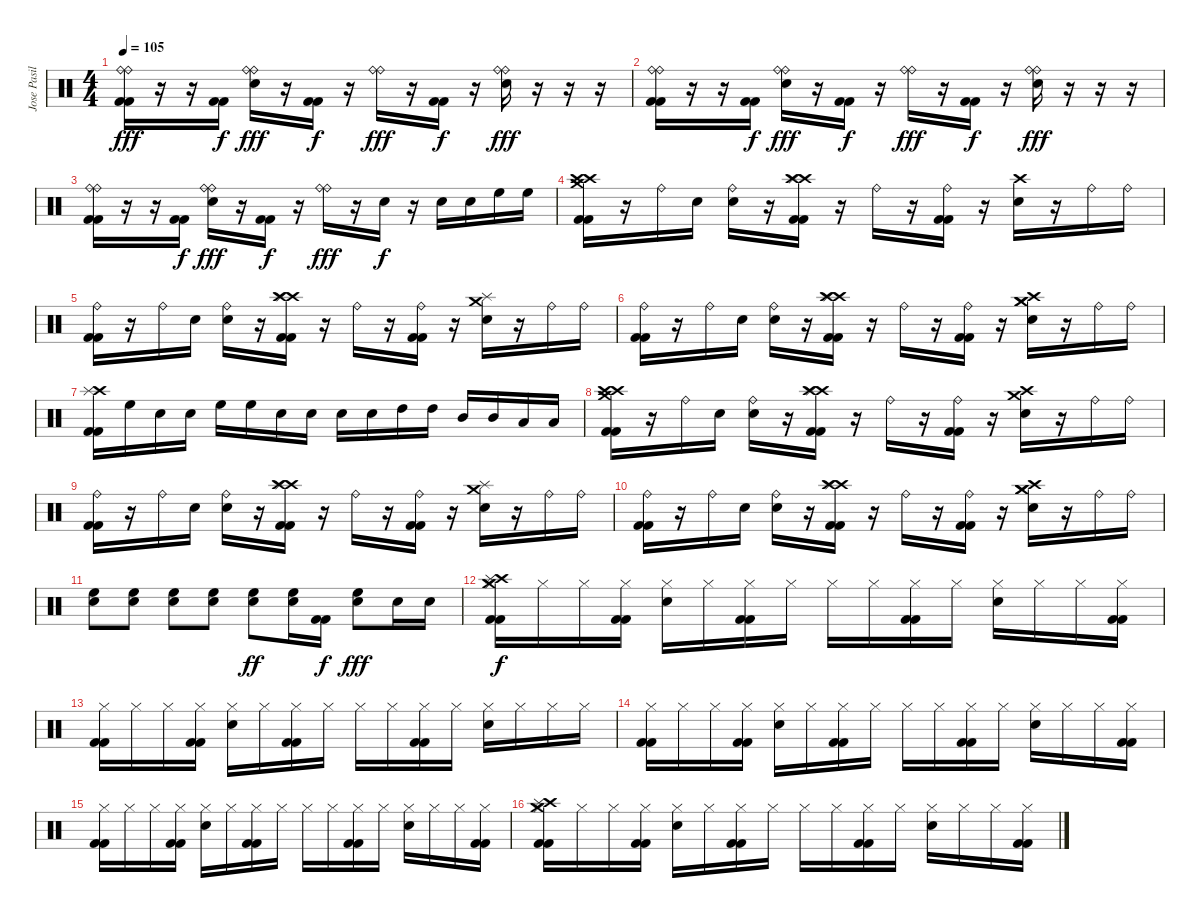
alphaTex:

\track ("Jose Pasillas" "Jose Pasil") {instrument percussion}
\staff {score}
\articulation defaults
\ts (4 4)
\tempo 105
\clef neutral
\ks c
("Ride (bell)" "Ride (bell)" "Kick (hit) 2" "Kick (hit) 2").16{dy fff} r.16 r.16 ("Kick (hit) 2" "Kick (hit) 2").16{dy f} ("Ride (bell)" "Ride (bell)" "Electric Snare (hit)").16{dy fff} r.16 ("Kick (hit) 2" "Kick (hit) 2").16{dy f} r.16 ("Ride (bell)" "Ride (bell)").16{dy fff} r.16 ("Kick (hit) 2" "Kick (hit) 2").16{dy f} r.16 ("Ride (bell)" "Ride (bell)" "Electric Snare (hit)").16{dy fff} r.16 r.16 r.16 |
("Ride (bell)" "Ride (bell)" "Kick (hit) 2" "Kick (hit) 2").16 r.16 r.16 ("Kick (hit) 2" "Kick (hit) 2").16{dy f} ("Ride (bell)" "Ride (bell)" "Electric Snare (hit)").16{dy fff} r.16 ("Kick (hit) 2" "Kick (hit) 2").16{dy f} r.16 ("Ride (bell)" "Ride (bell)").16{dy fff} r.16 ("Kick (hit) 2" "Kick (hit) 2").16{dy f} r.16 ("Ride (bell)" "Ride (bell)" "Electric Snare (hit)").16{dy fff} r.16 r.16 r.16 |
("Ride (bell)" "Ride (bell)" "Kick (hit) 2" "Kick (hit) 2").16 r.16 r.16 ("Kick (hit) 2" "Kick (hit) 2").16{dy f} ("Ride (bell)" "Ride (bell)" "Electric Snare (hit)").16{dy fff} r.16 ("Kick (hit) 2" "Kick (hit) 2").16{dy f} r.16 ("Ride (bell)" "Ride (bell)").16{dy fff} r.16 "Electric Snare (hit)".16{dy f} r.16 "Electric Snare (hit)".16 "Electric Snare (hit)".16 "High Floor Tom (hit)".16 "High Floor Tom (hit)".16 |
("Crash high (hit)" "Crash high (hit)" "Crash medium (hit)" "Kick (hit) 2" "Kick (hit) 2").16 r.16 "Ride (bell)".16 "Electric Snare (hit)".16 ("Ride (bell)" "Electric Snare (hit)").16 r.16 ("Crash high (hit)" "Crash high (hit)" "Splash (hit)" "Kick (hit) 2" "Kick (hit) 2").16 r.16 "Ride (bell)".16 r.16 ("Ride (bell)" "Kick (hit) 2" "Kick (hit) 2").16 r.16 ("Crash high (hit)" "Electric Snare (hit)").16 r.16 "Ride (bell)".16 "Ride (bell)".16 |
("Ride (bell)" "Kick (hit) 2" "Kick (hit) 2").16 r.16 "Ride (bell)".16 "Electric Snare (hit)".16 ("Ride (bell)" "Electric Snare (hit)").16 r.16 ("Crash high (hit)" "Crash high (hit)" "Splash (hit)" "Kick (hit) 2" "Kick (hit) 2").16 r.16 "Ride (bell)".16 r.16 ("Ride (bell)" "Kick (hit) 2" "Kick (hit) 2").16 r.16 ("Crash medium (hit)" "Splash (hit)" "Electric Snare (hit)").16 r.16 "Ride (bell)".16 "Ride (bell)".16 |
("Ride (bell)" "Kick (hit) 2" "Kick (hit) 2").16 r.16 "Ride (bell)".16 "Electric Snare (hit)".16 ("Ride (bell)" "Electric Snare (hit)").16 r.16 ("Crash high (hit)" "Crash high (hit)" "Splash (hit)" "Kick (hit) 2" "Kick (hit) 2").16 r.16 "Ride (bell)".16 r.16 ("Ride (bell)" "Kick (hit) 2" "Kick (hit) 2").16 r.16 ("Crash high (hit)" "Crash medium (hit)" "Crash medium (hit)" "Electric Snare (hit)").16 r.16 "Ride (bell)".16 "Ride (bell)".16 |
("Crash high (hit)" "Splash (hit)" "Kick (hit) 2" "Kick (hit) 2").16 "High Floor Tom (hit)".16 "Electric Snare (hit)".16 "Electric Snare (hit)".16 "High Floor Tom (hit)".16 "High Floor Tom (hit)".16 "Electric Snare (hit)".16 "Electric Snare (hit)".16 "Electric Snare (hit)".16 "Electric Snare (hit)".16 "High Tom (hit)".16 "High Tom (hit)".16 "Mid Tom (hit)".16 "Mid Tom (hit)".16 "Low Tom (hit)".16 "Low Tom (hit)".16 |
("Crash high (hit)" "Crash high (hit)" "Crash medium (hit)" "Kick (hit) 2" "Kick (hit) 2").16 r.16 "Ride (bell)".16 "Electric Snare (hit)".16 ("Ride (bell)" "Electric Snare (hit)").16 r.16 ("Crash high (hit)" "Crash high (hit)" "Splash (hit)" "Kick (hit) 2" "Kick (hit) 2").16 r.16 "Ride (bell)".16 r.16 ("Ride (bell)" "Kick (hit) 2" "Kick (hit) 2").16 r.16 ("Crash high (hit)" "Crash medium (hit)" "Electric Snare (hit)").16 r.16 "Ride (bell)".16 "Ride (bell)".16 |
("Ride (bell)" "Kick (hit) 2" "Kick (hit) 2").16 r.16 "Ride (bell)".16 "Electric Snare (hit)".16 ("Ride (bell)" "Electric Snare (hit)").16 r.16 ("Crash high (hit)" "Crash high (hit)" "Splash (hit)" "Kick (hit) 2" "Kick (hit) 2").16 r.16 "Ride (bell)".16 r.16 ("Ride (bell)" "Kick (hit) 2" "Kick (hit) 2").16 r.16 ("Crash medium (hit)" "Splash (hit)" "Electric Snare (hit)").16 r.16 "Ride (bell)".16 "Ride (bell)".16 |
("Ride (bell)" "Kick (hit) 2" "Kick (hit) 2").16 r.16 "Ride (bell)".16 "Electric Snare (hit)".16 ("Ride (bell)" "Electric Snare (hit)").16 r.16 ("Crash high (hit)" "Crash high (hit)" "Splash (hit)" "Kick (hit) 2" "Kick (hit) 2").16 r.16 "Ride (bell)".16 r.16 ("Ride (bell)" "Kick (hit) 2" "Kick (hit) 2").16 r.16 ("Crash high (hit)" "Crash medium (hit)" "Crash medium (hit)" "Electric Snare (hit)").16 r.16 "Ride (bell)".16 "Ride (bell)".16 |
("High Floor Tom (hit)" "Electric Snare (hit)").8 ("High Floor Tom (hit)" "Electric Snare (hit)").8 ("High Floor Tom (hit)" "Electric Snare (hit)").8 ("High Floor Tom (hit)" "Electric Snare (hit)").8 ("High Floor Tom (hit)" "Electric Snare (hit)").8{dy ff} ("High Floor Tom (hit)" "Electric Snare (hit)").16 ("Kick (hit) 2" "Kick (hit) 2").16{dy f} ("High Floor Tom (hit)" "Electric Snare (hit)").8{dy fff} "Electric Snare (hit)".16 "Electric Snare (hit)".16 |
("Hi-Hat (closed)" "Crash medium (hit)" "Crash high (hit)" "Splash (hit)" "Kick (hit) 2" "Kick (hit) 2").16{dy f} "Hi-Hat (closed)".16 "Hi-Hat (closed)".16 ("Hi-Hat (closed)" "Kick (hit) 2" "Kick (hit) 2").16 ("Hi-Hat (closed)" "Electric Snare (hit)").16 "Hi-Hat (closed)".16 ("Hi-Hat (closed)" "Kick (hit) 2" "Kick (hit) 2").16 "Hi-Hat (closed)".16 "Hi-Hat (closed)".16 "Hi-Hat (closed)".16 ("Hi-Hat (closed)" "Kick (hit) 2" "Kick (hit) 2").16 "Hi-Hat (closed)".16 ("Hi-Hat (closed)" "Electric Snare (hit)").16 "Hi-Hat (closed)".16 "Hi-Hat (closed)".16 ("Hi-Hat (closed)" "Kick (hit) 2" "Kick (hit) 2").16 |
("Hi-Hat (closed)" "Kick (hit) 2" "Kick (hit) 2").16 "Hi-Hat (closed)".16 "Hi-Hat (closed)".16 ("Hi-Hat (closed)" "Kick (hit) 2" "Kick (hit) 2").16 ("Hi-Hat (closed)" "Electric Snare (hit)").16 "Hi-Hat (closed)".16 ("Hi-Hat (closed)" "Kick (hit) 2" "Kick (hit) 2").16 "Hi-Hat (closed)".16 "Hi-Hat (closed)".16 "Hi-Hat (closed)".16 ("Hi-Hat (closed)" "Kick (hit) 2" "Kick (hit) 2").16 "Hi-Hat (closed)".16 ("Hi-Hat (closed)" "Electric Snare (hit)").16 "Hi-Hat (closed)".16 "Hi-Hat (closed)".16 "Hi-Hat (closed)".16 |
("Hi-Hat (closed)" "Kick (hit) 2" "Kick (hit) 2").16 "Hi-Hat (closed)".16 "Hi-Hat (closed)".16 ("Hi-Hat (closed)" "Kick (hit) 2" "Kick (hit) 2").16 ("Hi-Hat (closed)" "Electric Snare (hit)").16 "Hi-Hat (closed)".16 ("Hi-Hat (closed)" "Kick (hit) 2" "Kick (hit) 2").16 "Hi-Hat (closed)".16 "Hi-Hat (closed)".16 "Hi-Hat (closed)".16 ("Hi-Hat (closed)" "Kick (hit) 2" "Kick (hit) 2").16 "Hi-Hat (closed)".16 ("Hi-Hat (closed)" "Electric Snare (hit)").16 "Hi-Hat (closed)".16 "Hi-Hat (closed)".16 ("Hi-Hat (closed)" "Kick (hit) 2" "Kick (hit) 2").16 |
("Hi-Hat (closed)" "Kick (hit) 2" "Kick (hit) 2").16 "Hi-Hat (closed)".16 "Hi-Hat (closed)".16 ("Hi-Hat (closed)" "Kick (hit) 2" "Kick (hit) 2").16 ("Hi-Hat (closed)" "Electric Snare (hit)").16 "Hi-Hat (closed)".16 ("Hi-Hat (closed)" "Kick (hit) 2" "Kick (hit) 2").16 "Hi-Hat (closed)".16 "Hi-Hat (closed)".16 "Hi-Hat (closed)".16 ("Hi-Hat (closed)" "Kick (hit) 2" "Kick (hit) 2").16 "Hi-Hat (closed)".16 ("Hi-Hat (closed)" "Electric Snare (hit)").16 "Hi-Hat (closed)".16 "Hi-Hat (closed)".16 ("Hi-Hat (closed)" "Kick (hit) 2" "Kick (hit) 2").16 |
("Hi-Hat (closed)" "Crash medium (hit)" "Crash high (hit)" "Splash (hit)" "Kick (hit) 2" "Kick (hit) 2").16 "Hi-Hat (closed)".16 "Hi-Hat (closed)".16 ("Hi-Hat (closed)" "Kick (hit) 2" "Kick (hit) 2").16 ("Hi-Hat (closed)" "Electric Snare (hit)").16 "Hi-Hat (closed)".16 ("Hi-Hat (closed)" "Kick (hit) 2" "Kick (hit) 2").16 "Hi-Hat (closed)".16 "Hi-Hat (closed)".16 "Hi-Hat (closed)".16 ("Hi-Hat (closed)" "Kick (hit) 2" "Kick (hit) 2").16 "Hi-Hat (closed)".16 ("Hi-Hat (closed)" "Electric Snare (hit)").16 "Hi-Hat (closed)".16 "Hi-Hat (closed)".16 ("Hi-Hat (closed)" "Kick (hit) 2" "Kick (hit) 2").16
